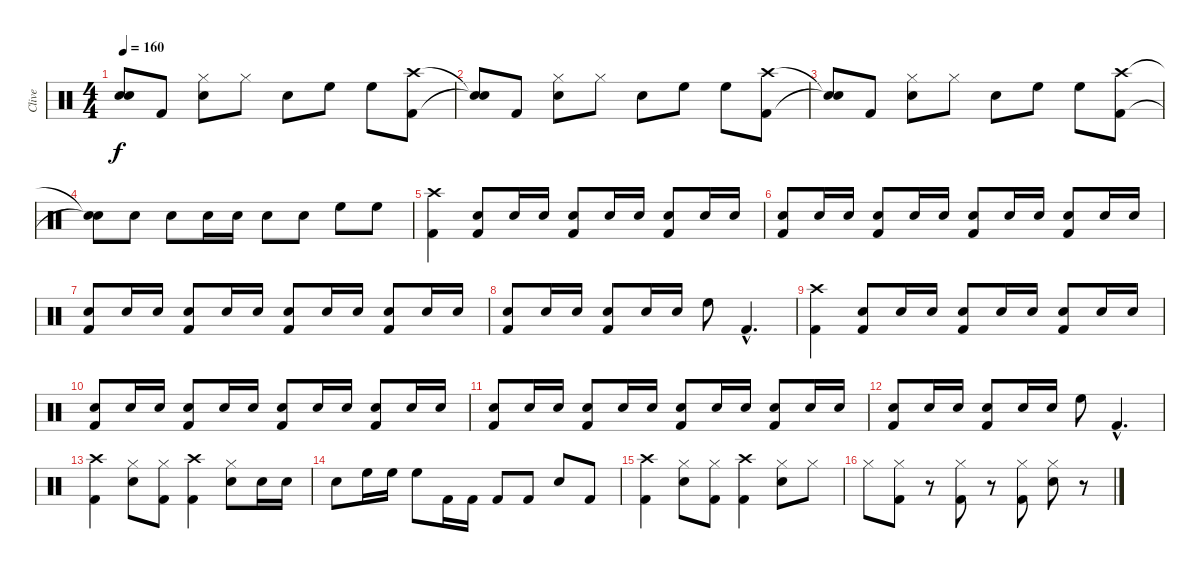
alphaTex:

\track ("Clive" "Clive") {instrument percussion}
\staff {score}
\articulation defaults
\ts (4 4)
\tempo 160
\clef neutral
\ks c
("Snare (hit)"{t} "Snare (hit)"{t}).8{dy f} "Kick (hit) 2".8 ("Hi-Hat (closed)" "Snare (hit) 2").8 "Hi-Hat (closed)".8 "Snare (hit) 2".8 "High Floor Tom (hit)".8 "High Floor Tom (hit)".8 ("Crash high (hit)" "Kick (hit) 2").8 |
("Snare (hit)"{t} "Snare (hit)"{t}).8 "Kick (hit) 2".8 ("Hi-Hat (closed)" "Snare (hit) 2").8 "Hi-Hat (closed)".8 "Snare (hit) 2".8 "High Floor Tom (hit)".8 "High Floor Tom (hit)".8 ("Crash high (hit)" "Kick (hit) 2").8 |
("Snare (hit)"{t} "Snare (hit)"{t}).8 "Kick (hit) 2".8 ("Hi-Hat (closed)" "Snare (hit) 2").8 "Hi-Hat (closed)".8 "Snare (hit) 2".8 "High Floor Tom (hit)".8 "High Floor Tom (hit)".8 ("Crash high (hit)" "Kick (hit) 2").8 |
("Snare (hit)"{t} "Snare (hit)"{t}).8 "Snare (hit) 2".8 "Snare (hit) 2".8 "Snare (hit) 2".16 "Snare (hit) 2".16 "Snare (hit) 2".8 "Snare (hit) 2".8 "High Floor Tom (hit)".8 "High Floor Tom (hit)".8 |
("Crash high (hit)" "Kick (hit) 2").4 ("Snare (hit) 2" "Kick (hit) 2").8 "Snare (hit) 2".16 "Snare (hit) 2".16 ("Snare (hit) 2" "Kick (hit) 2").8 "Snare (hit) 2".16 "Snare (hit) 2".16 ("Snare (hit) 2" "Kick (hit) 2").8 "Snare (hit) 2".16 "Snare (hit) 2".16 |
("Snare (hit) 2" "Kick (hit) 2").8 "Snare (hit) 2".16 "Snare (hit) 2".16 ("Snare (hit) 2" "Kick (hit) 2").8 "Snare (hit) 2".16 "Snare (hit) 2".16 ("Snare (hit) 2" "Kick (hit) 2").8 "Snare (hit) 2".16 "Snare (hit) 2".16 ("Snare (hit) 2" "Kick (hit) 2").8 "Snare (hit) 2".16 "Snare (hit) 2".16 |
("Snare (hit) 2" "Kick (hit) 2").8 "Snare (hit) 2".16 "Snare (hit) 2".16 ("Snare (hit) 2" "Kick (hit) 2").8 "Snare (hit) 2".16 "Snare (hit) 2".16 ("Snare (hit) 2" "Kick (hit) 2").8 "Snare (hit) 2".16 "Snare (hit) 2".16 ("Snare (hit) 2" "Kick (hit) 2").8 "Snare (hit) 2".16 "Snare (hit) 2".16 |
("Snare (hit) 2" "Kick (hit) 2").8 "Snare (hit) 2".16 "Snare (hit) 2".16 ("Snare (hit) 2" "Kick (hit) 2").8 "Snare (hit) 2".16 "Snare (hit) 2".16 "High Floor Tom (hit)".8 "Kick (hit) 2"{hac}.4{d} |
("Crash high (hit)" "Kick (hit) 2").4 ("Snare (hit) 2" "Kick (hit) 2").8 "Snare (hit) 2".16 "Snare (hit) 2".16 ("Snare (hit) 2" "Kick (hit) 2").8 "Snare (hit) 2".16 "Snare (hit) 2".16 ("Snare (hit) 2" "Kick (hit) 2").8 "Snare (hit) 2".16 "Snare (hit) 2".16 |
("Snare (hit) 2" "Kick (hit) 2").8 "Snare (hit) 2".16 "Snare (hit) 2".16 ("Snare (hit) 2" "Kick (hit) 2").8 "Snare (hit) 2".16 "Snare (hit) 2".16 ("Snare (hit) 2" "Kick (hit) 2").8 "Snare (hit) 2".16 "Snare (hit) 2".16 ("Snare (hit) 2" "Kick (hit) 2").8 "Snare (hit) 2".16 "Snare (hit) 2".16 |
("Snare (hit) 2" "Kick (hit) 2").8 "Snare (hit) 2".16 "Snare (hit) 2".16 ("Snare (hit) 2" "Kick (hit) 2").8 "Snare (hit) 2".16 "Snare (hit) 2".16 ("Snare (hit) 2" "Kick (hit) 2").8 "Snare (hit) 2".16 "Snare (hit) 2".16 ("Snare (hit) 2" "Kick (hit) 2").8 "Snare (hit) 2".16 "Snare (hit) 2".16 |
("Snare (hit) 2" "Kick (hit) 2").8 "Snare (hit) 2".16 "Snare (hit) 2".16 ("Snare (hit) 2" "Kick (hit) 2").8 "Snare (hit) 2".16 "Snare (hit) 2".16 "High Floor Tom (hit)".8 "Kick (hit) 2"{hac}.4{d} |
("Crash high (hit)" "Kick (hit) 2").4 ("Hi-Hat (closed)" "Snare (hit) 2").8 ("Hi-Hat (closed)" "Kick (hit) 2").8 ("Crash high (hit)" "Kick (hit) 2").4 ("Hi-Hat (closed)" "Snare (hit) 2").8 "Snare (hit) 2".16 "Snare (hit) 2".16 |
"Snare (hit) 2".8 "High Floor Tom (hit)".16 "High Floor Tom (hit)".16 "High Floor Tom (hit)".8 "Kick (hit) 2".16 "Kick (hit) 2".16 "Kick (hit) 2".8 "Kick (hit) 2".8 "Snare (hit) 2".8 "Kick (hit) 2".8 |
("Crash high (hit)" "Kick (hit) 2").4 ("Hi-Hat (closed)" "Snare (hit) 2").8 ("Hi-Hat (closed)" "Kick (hit) 2").8 ("Crash high (hit)" "Kick (hit) 2").4 ("Hi-Hat (closed)" "Snare (hit) 2").8 "Hi-Hat (closed)".8 |
"Hi-Hat (closed)".8 ("Hi-Hat (closed)" "Kick (hit) 2").8 r.8 ("Hi-Hat (closed)" "Kick (hit) 2").8 r.8 ("Hi-Hat (closed)" "Kick (hit) 2").8 ("Hi-Hat (closed)" "Snare (hit) 2").8 r.8
